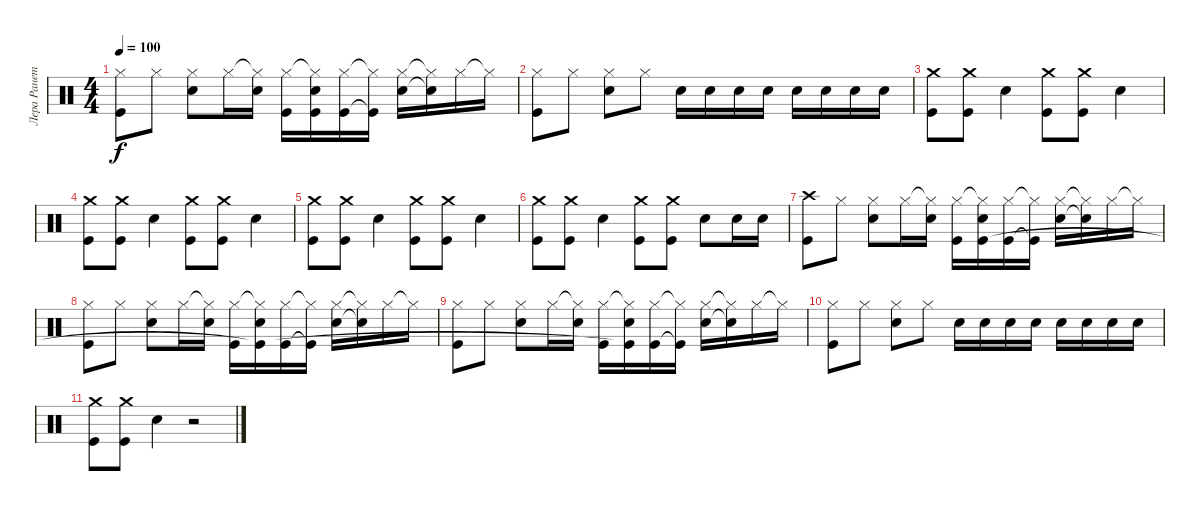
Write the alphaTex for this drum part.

\track ("Лера Ранетка" "Лера Ранет") {instrument percussion}
\staff {score}
\articulation defaults
\ts (4 4)
\tempo 100
\clef neutral
\ks c
("Hi-Hat (closed)" "Kick (hit)").8{dy f} "Hi-Hat (closed)".8 ("Hi-Hat (closed)" "Electric Snare (hit)").8 "Hi-Hat (closed)".16 ("Hi-Hat (closed)"{t} "Electric Snare (hit)").16 ("Hi-Hat (closed)" "Kick (hit)").16 ("Hi-Hat (closed)"{t} "Electric Snare (hit)" "Kick (hit)"{t}).16 ("Hi-Hat (closed)" "Kick (hit)").16 ("Hi-Hat (closed)"{t} "Kick (hit)"{t}).16 ("Hi-Hat (closed)" "Electric Snare (hit)").16 ("Hi-Hat (closed)"{t} "Electric Snare (hit)"{t}).16 "Hi-Hat (closed)".16 "Hi-Hat (closed)"{t}.16 |
("Hi-Hat (closed)" "Kick (hit)").8 "Hi-Hat (closed)".8 ("Hi-Hat (closed)" "Electric Snare (hit)").8 "Hi-Hat (closed)".8 "Electric Snare (hit)".16 "Electric Snare (hit)".16 "Electric Snare (hit)".16 "Electric Snare (hit)".16 "Electric Snare (hit)".16 "Electric Snare (hit)".16 "Electric Snare (hit)".16 "Electric Snare (hit)".16 |
("Crash medium (hit)" "Kick (hit)").8 ("Crash medium (hit)" "Kick (hit)").8 "Electric Snare (hit)".4 ("Crash medium (hit)" "Kick (hit)").8 ("Crash medium (hit)" "Kick (hit)").8 "Electric Snare (hit)".4 |
("Crash medium (hit)" "Kick (hit)").8 ("Crash medium (hit)" "Kick (hit)").8 "Electric Snare (hit)".4 ("Crash medium (hit)" "Kick (hit)").8 ("Crash medium (hit)" "Kick (hit)").8 "Electric Snare (hit)".4 |
("Crash medium (hit)" "Kick (hit)").8 ("Crash medium (hit)" "Kick (hit)").8 "Electric Snare (hit)".4 ("Crash medium (hit)" "Kick (hit)").8 ("Crash medium (hit)" "Kick (hit)").8 "Electric Snare (hit)".4 |
("Crash medium (hit)" "Kick (hit)").8 ("Crash medium (hit)" "Kick (hit)").8 "Electric Snare (hit)".4 ("Crash medium (hit)" "Kick (hit)").8 ("Crash medium (hit)" "Kick (hit)").8 "Electric Snare (hit)".8 "Electric Snare (hit)".16 "Electric Snare (hit)".16 |
("Crash high (hit)" "Kick (hit)").8 "Hi-Hat (closed)".8 ("Hi-Hat (closed)" "Electric Snare (hit)").8 "Hi-Hat (closed)".16 ("Hi-Hat (closed)"{t} "Electric Snare (hit)").16 ("Hi-Hat (closed)" "Kick (hit)").16 ("Hi-Hat (closed)"{t} "Electric Snare (hit)" "Kick (hit)").16 ("Hi-Hat (closed)" "Kick (hit)").16 ("Hi-Hat (closed)"{t} "Kick (hit)"{t}).16 ("Hi-Hat (closed)" "Electric Snare (hit)").16 ("Hi-Hat (closed)"{t} "Electric Snare (hit)"{t}).16 "Hi-Hat (closed)".16 "Hi-Hat (closed)"{t}.16 |
("Hi-Hat (closed)" "Kick (hit)").8 "Hi-Hat (closed)".8 ("Hi-Hat (closed)" "Electric Snare (hit)").8 "Hi-Hat (closed)".16 ("Hi-Hat (closed)"{t} "Electric Snare (hit)").16 ("Hi-Hat (closed)" "Kick (hit)").16 ("Hi-Hat (closed)"{t} "Electric Snare (hit)" "Kick (hit)"{t}).16 ("Hi-Hat (closed)" "Kick (hit)").16 ("Hi-Hat (closed)"{t} "Kick (hit)"{t}).16 ("Hi-Hat (closed)" "Electric Snare (hit)").16 ("Hi-Hat (closed)"{t} "Electric Snare (hit)"{t}).16 "Hi-Hat (closed)".16 "Hi-Hat (closed)"{t}.16 |
("Hi-Hat (closed)" "Kick (hit)").8 "Hi-Hat (closed)".8 ("Hi-Hat (closed)" "Electric Snare (hit)").8 "Hi-Hat (closed)".16 ("Hi-Hat (closed)"{t} "Electric Snare (hit)").16 ("Hi-Hat (closed)" "Kick (hit)").16 ("Hi-Hat (closed)"{t} "Electric Snare (hit)" "Kick (hit)"{t}).16 ("Hi-Hat (closed)" "Kick (hit)").16 ("Hi-Hat (closed)"{t} "Kick (hit)"{t}).16 ("Hi-Hat (closed)" "Electric Snare (hit)").16 ("Hi-Hat (closed)"{t} "Electric Snare (hit)"{t}).16 "Hi-Hat (closed)".16 "Hi-Hat (closed)"{t}.16 |
("Hi-Hat (closed)" "Kick (hit)").8 "Hi-Hat (closed)".8 ("Hi-Hat (closed)" "Electric Snare (hit)").8 "Hi-Hat (closed)".8 "Electric Snare (hit)".16 "Electric Snare (hit)".16 "Electric Snare (hit)".16 "Electric Snare (hit)".16 "Electric Snare (hit)".16 "Electric Snare (hit)".16 "Electric Snare (hit)".16 "Electric Snare (hit)".16 |
("Crash medium (hit)" "Kick (hit)").8 ("Crash medium (hit)" "Kick (hit)").8 "Electric Snare (hit)".4 r.2
